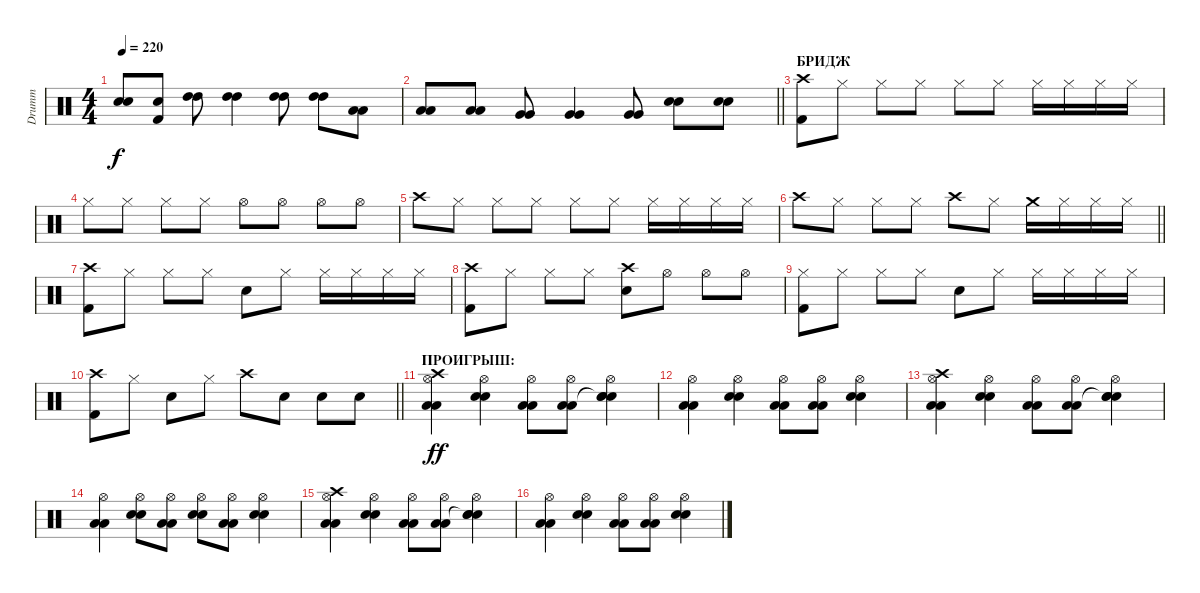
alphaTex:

\track ("Drumm" "Drumm") {instrument percussion}
\staff {score}
\articulation defaults
\ts (4 4)
\tempo 220
\clef neutral
\ks c
("Snare (hit) 2" "Snare (hit) 2").8{dy f} ("Snare (hit) 2" "Kick (hit) 2").8 ("High Tom (hit)" "High Tom (hit)").8 ("High Tom (hit)" "High Tom (hit)").4 ("High Tom (hit)" "High Tom (hit)").8 ("High Tom (hit)" "High Tom (hit)").8 ("Low Tom (hit)" "Low Tom (hit)").8 |
\barLineRight lightlight
("Low Tom (hit)" "Low Tom (hit)").8 ("Low Tom (hit)" "Low Tom (hit)").8 ("Very Low Tom (hit)" "Very Low Tom (hit)").8 ("Very Low Tom (hit)" "Very Low Tom (hit)").4 ("Very Low Tom (hit)" "Very Low Tom (hit)").8 ("Snare (hit) 2" "Snare (hit) 2").8 ("Snare (hit) 2" "Snare (hit) 2").8 |
\section ("" "БРИДЖ")
("Crash high (hit)" "Kick (hit) 2").8 "Hi-Hat (closed)".8 "Hi-Hat (closed)".8 "Hi-Hat (closed)".8 "Hi-Hat (closed)".8 "Hi-Hat (closed)".8 "Hi-Hat (closed)".16 "Hi-Hat (closed)".16 "Hi-Hat (closed)".16 "Hi-Hat (closed)".16 |
"Hi-Hat (closed)".8 "Hi-Hat (closed)".8 "Hi-Hat (closed)".8 "Hi-Hat (closed)".8 "Hi-Hat (open)".8 "Hi-Hat (open)".8 "Hi-Hat (open)".8 "Hi-Hat (open)".8 |
"Crash high (hit)".8 "Hi-Hat (closed)".8 "Hi-Hat (closed)".8 "Hi-Hat (closed)".8 "Hi-Hat (closed)".8 "Hi-Hat (closed)".8 "Hi-Hat (closed)".16 "Hi-Hat (closed)".16 "Hi-Hat (closed)".16 "Hi-Hat (closed)".16 |
\barLineRight lightlight "Crash high (hit)".8 "Hi-Hat (closed)".8 "Hi-Hat (closed)".8 "Hi-Hat (closed)".8 "Crash high (hit)".8 "Hi-Hat (closed)".8 "Crash medium (hit)".16 "Hi-Hat (closed)".16 "Hi-Hat (closed)".16 "Hi-Hat (closed)".16
|
("Crash high (hit)" "Kick (hit) 2").8 "Hi-Hat (closed)".8 "Hi-Hat (closed)".8 "Hi-Hat (closed)".8 "Snare (hit) 2".8 "Hi-Hat (closed)".8 "Hi-Hat (closed)".16 "Hi-Hat (closed)".16 "Hi-Hat (closed)".16 "Hi-Hat (closed)".16 |
("Crash high (hit)" "Kick (hit) 2").8 "Hi-Hat (closed)".8 "Hi-Hat (closed)".8 "Hi-Hat (closed)".8 ("Snare (hit) 2" "Crash high (hit)").8 "Hi-Hat (open)".8 "Hi-Hat (open)".8 "Hi-Hat (open)".8 |
("Hi-Hat (closed)" "Kick (hit) 2").8 "Hi-Hat (closed)".8 "Hi-Hat (closed)".8 "Hi-Hat (closed)".8 "Snare (hit) 2".8 "Hi-Hat (closed)".8 "Hi-Hat (closed)".16 "Hi-Hat (closed)".16 "Hi-Hat (closed)".16 "Hi-Hat (closed)".16 |
\barLineRight lightlight
("Crash high (hit)" "Kick (hit) 2").8 "Hi-Hat (closed)".8 "Snare (hit) 2".8 "Hi-Hat (closed)".8 "Crash high (hit)".8 "Snare (hit) 2".8 "Snare (hit) 2".8 "Snare (hit) 2".8 |
\section ("" "ПРОИГРЫШ:")
("Hi-Hat (open)" "Crash high (hit)" "Low Floor Tom (hit)" "Low Floor Tom (hit)").4{dy ff} ("Hi-Hat (open)" "Electric Snare (hit)" "Electric Snare (hit)").4 ("Hi-Hat (open)" "Low Floor Tom (hit)" "Low Floor Tom (hit)").8 ("Hi-Hat (open)" "Low Floor Tom (hit)" "Low Floor Tom (hit)").8 ("Hi-Hat (open)" "Snare (hit)"{t} "Electric Snare (hit)" "Electric Snare (hit)").4 |
("Hi-Hat (open)" "Low Floor Tom (hit)" "Low Floor Tom (hit)").4 ("Hi-Hat (open)" "Electric Snare (hit)" "Electric Snare (hit)").4 ("Hi-Hat (open)" "Low Floor Tom (hit)" "Low Floor Tom (hit)").8 ("Hi-Hat (open)" "Low Floor Tom (hit)" "Low Floor Tom (hit)").8 ("Hi-Hat (open)" "Electric Snare (hit)" "Electric Snare (hit)").4 |
("Hi-Hat (open)" "Crash high (hit)" "Low Floor Tom (hit)" "Low Floor Tom (hit)").4 ("Hi-Hat (open)" "Electric Snare (hit)" "Electric Snare (hit)").4 ("Hi-Hat (open)" "Low Floor Tom (hit)" "Low Floor Tom (hit)").8 ("Hi-Hat (open)" "Low Floor Tom (hit)" "Low Floor Tom (hit)").8 ("Hi-Hat (open)" "Snare (hit)"{t} "Electric Snare (hit)" "Electric Snare (hit)").4 |
("Hi-Hat (open)" "Low Floor Tom (hit)" "Low Floor Tom (hit)").4 ("Hi-Hat (open)" "Electric Snare (hit)" "Electric Snare (hit)").8 ("Hi-Hat (open)" "Low Floor Tom (hit)" "Low Floor Tom (hit)").8 ("Hi-Hat (open)" "Electric Snare (hit)" "Electric Snare (hit)").8 ("Hi-Hat (open)" "Low Floor Tom (hit)" "Low Floor Tom (hit)").8 ("Hi-Hat (open)" "Electric Snare (hit)" "Electric Snare (hit)").4 |
("Hi-Hat (open)" "Crash high (hit)" "Low Floor Tom (hit)" "Low Floor Tom (hit)").4 ("Hi-Hat (open)" "Electric Snare (hit)" "Electric Snare (hit)").4 ("Hi-Hat (open)" "Low Floor Tom (hit)" "Low Floor Tom (hit)").8 ("Hi-Hat (open)" "Low Floor Tom (hit)" "Low Floor Tom (hit)").8 ("Hi-Hat (open)" "Snare (hit)"{t} "Electric Snare (hit)" "Electric Snare (hit)").4 |
("Hi-Hat (open)" "Low Floor Tom (hit)" "Low Floor Tom (hit)").4 ("Hi-Hat (open)" "Electric Snare (hit)" "Electric Snare (hit)").4 ("Hi-Hat (open)" "Low Floor Tom (hit)" "Low Floor Tom (hit)").8 ("Hi-Hat (open)" "Low Floor Tom (hit)" "Low Floor Tom (hit)").8 ("Hi-Hat (open)" "Electric Snare (hit)" "Electric Snare (hit)").4
